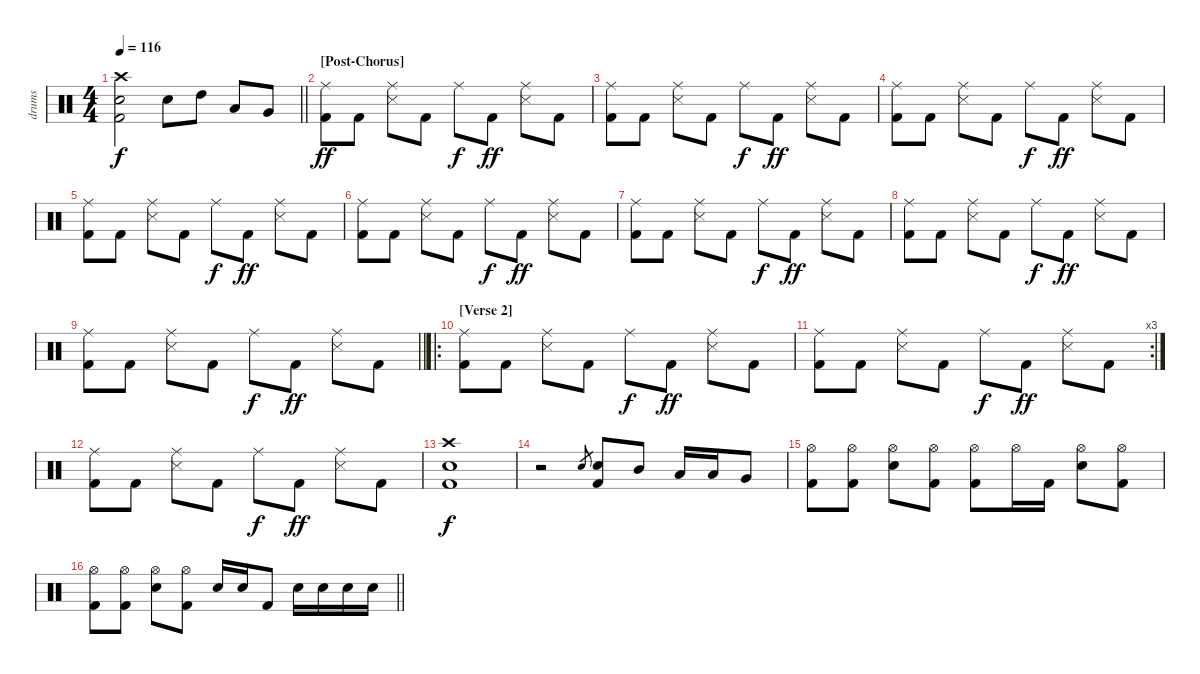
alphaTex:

\track ("drums" "drums") {instrument percussion}
\staff {score}
\articulation defaults
\ts (4 4)
\tempo 116
\clef neutral
\barLineRight lightlight
\ks c
("Crash high (hit)" "Snare (hit) 2" "Kick (hit) 2").2{dy f} "Snare (hit) 2".8 "High Tom (hit)".8 "Low Tom (hit)".8 "Very Low Tom (hit)".8 |
\section ("" "[Post-Chorus]")
("Ride (middle)" "Kick (hit) 2").8{dy ff} "Kick (hit) 2".8 ("Ride (middle)" "Snare (side stick) 3").8 "Kick (hit) 2".8 "Ride (middle)".8{dy f} "Kick (hit) 2".8{dy ff} ("Ride (middle)" "Snare (side stick) 3").8 "Kick (hit) 2".8 |
("Ride (middle)" "Kick (hit) 2").8 "Kick (hit) 2".8 ("Ride (middle)" "Snare (side stick) 3").8 "Kick (hit) 2".8 "Ride (middle)".8{dy f} "Kick (hit) 2".8{dy ff} ("Ride (middle)" "Snare (side stick) 3").8 "Kick (hit) 2".8 |
("Ride (middle)" "Kick (hit) 2").8 "Kick (hit) 2".8 ("Ride (middle)" "Snare (side stick) 3").8 "Kick (hit) 2".8 "Ride (middle)".8{dy f} "Kick (hit) 2".8{dy ff} ("Ride (middle)" "Snare (side stick) 3").8 "Kick (hit) 2".8 |
("Ride (middle)" "Kick (hit) 2").8 "Kick (hit) 2".8 ("Ride (middle)" "Snare (side stick) 3").8 "Kick (hit) 2".8 "Ride (middle)".8{dy f} "Kick (hit) 2".8{dy ff} ("Ride (middle)" "Snare (side stick) 3").8 "Kick (hit) 2".8 |
("Ride (middle)" "Kick (hit) 2").8 "Kick (hit) 2".8 ("Ride (middle)" "Snare (side stick) 3").8 "Kick (hit) 2".8 "Ride (middle)".8{dy f} "Kick (hit) 2".8{dy ff} ("Ride (middle)" "Snare (side stick) 3").8 "Kick (hit) 2".8 |
("Ride (middle)" "Kick (hit) 2").8 "Kick (hit) 2".8 ("Ride (middle)" "Snare (side stick) 3").8 "Kick (hit) 2".8 "Ride (middle)".8{dy f} "Kick (hit) 2".8{dy ff} ("Ride (middle)" "Snare (side stick) 3").8 "Kick (hit) 2".8 |
("Ride (middle)" "Kick (hit) 2").8 "Kick (hit) 2".8 ("Ride (middle)" "Snare (side stick) 3").8 "Kick (hit) 2".8 "Ride (middle)".8{dy f} "Kick (hit) 2".8{dy ff} ("Ride (middle)" "Snare (side stick) 3").8 "Kick (hit) 2".8 |
\barLineRight lightlight
("Ride (middle)" "Kick (hit) 2").8 "Kick (hit) 2".8 ("Ride (middle)" "Snare (side stick) 3").8 "Kick (hit) 2".8 "Ride (middle)".8{dy f} "Kick (hit) 2".8{dy ff} ("Ride (middle)" "Snare (side stick) 3").8 "Kick (hit) 2".8 |
\ro
\section ("" "[Verse 2]")
("Ride (middle)" "Kick (hit) 2").8 "Kick (hit) 2".8 ("Ride (middle)" "Snare (side stick) 3").8 "Kick (hit) 2".8 "Ride (middle)".8{dy f} "Kick (hit) 2".8{dy ff} ("Ride (middle)" "Snare (side stick) 3").8 "Kick (hit) 2".8 |
\rc 3
("Ride (middle)" "Kick (hit) 2").8 "Kick (hit) 2".8 ("Ride (middle)" "Snare (side stick) 3").8 "Kick (hit) 2".8 "Ride (middle)".8{dy f} "Kick (hit) 2".8{dy ff} ("Ride (middle)" "Snare (side stick) 3").8 "Kick (hit) 2".8 |
("Ride (middle)" "Kick (hit) 2").8 "Kick (hit) 2".8 ("Ride (middle)" "Snare (side stick) 3").8 "Kick (hit) 2".8 "Ride (middle)".8{dy f} "Kick (hit) 2".8{dy ff} ("Ride (middle)" "Snare (side stick) 3").8 "Kick (hit) 2".8 |
("Crash high (hit)" "Electric Snare (hit)" "Kick (hit) 2").1{dy f} |
r.2 "Snare (hit) 2".8{gr} ("Snare (hit) 2" "Kick (hit) 2").8 "Mid Tom (hit)".8 "Low Tom (hit)".16 "Low Tom (hit)".16 "Very Low Tom (hit)".8 |
("Hi-Hat (open)" "Kick (hit) 2").8 ("Hi-Hat (open)" "Kick (hit) 2").8 ("Hi-Hat (open)" "Snare (hit) 2").8 ("Hi-Hat (open)" "Kick (hit) 2").8 ("Hi-Hat (open)" "Kick (hit) 2").8 "Hi-Hat (open)".16 "Kick (hit) 2".16 ("Hi-Hat (open)" "Snare (hit) 2").8 ("Hi-Hat (open)" "Kick (hit) 2").8 |
\barLineRight lightlight
("Hi-Hat (open)" "Kick (hit) 2").8 ("Hi-Hat (open)" "Kick (hit) 2").8 ("Hi-Hat (open)" "Snare (hit) 2").8 ("Hi-Hat (open)" "Kick (hit) 2").8 "Snare (hit) 2".16 "Snare (hit) 2".16 "Kick (hit) 2".8 "Snare (hit) 2".16 "Snare (hit) 2".16 "Snare (hit) 2".16 "Snare (hit) 2".16
